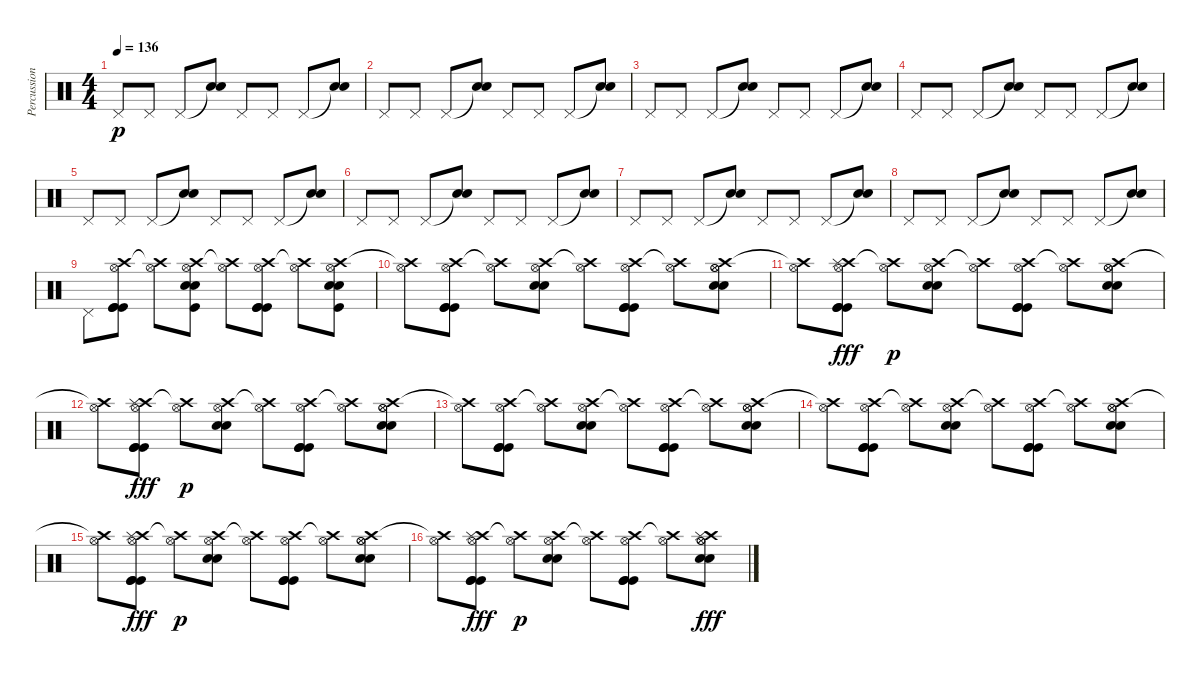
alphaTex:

\track ("Percussions" "Percussion") {instrument percussion}
\staff {score}
\articulation defaults
\ts (4 4)
\tempo 136
\clef neutral
\ks c "Pedal Hi-Hat (hit)".8{dy p} "Pedal Hi-Hat (hit)".8 "Pedal Hi-Hat (hit)".8
("Snare (hit)"{t} "Snare (hit) 2").8 "Pedal Hi-Hat (hit)".8 "Pedal Hi-Hat (hit)".8 "Pedal Hi-Hat (hit)".8 ("Snare (hit)"{t} "Snare (hit) 2").8 |
"Pedal Hi-Hat (hit)".8 "Pedal Hi-Hat (hit)".8 "Pedal Hi-Hat (hit)".8 ("Snare (hit)"{t} "Snare (hit) 2").8 "Pedal Hi-Hat (hit)".8 "Pedal Hi-Hat (hit)".8 "Pedal Hi-Hat (hit)".8 ("Snare (hit)"{t} "Snare (hit) 2").8 |
"Pedal Hi-Hat (hit)".8 "Pedal Hi-Hat (hit)".8 "Pedal Hi-Hat (hit)".8 ("Snare (hit)"{t} "Snare (hit) 2").8 "Pedal Hi-Hat (hit)".8 "Pedal Hi-Hat (hit)".8 "Pedal Hi-Hat (hit)".8 ("Snare (hit)"{t} "Snare (hit) 2").8 |
"Pedal Hi-Hat (hit)".8 "Pedal Hi-Hat (hit)".8 "Pedal Hi-Hat (hit)".8 ("Snare (hit)"{t} "Snare (hit) 2").8 "Pedal Hi-Hat (hit)".8 "Pedal Hi-Hat (hit)".8 "Pedal Hi-Hat (hit)".8 ("Snare (hit)"{t} "Snare (hit) 2").8 |
"Pedal Hi-Hat (hit)".8 "Pedal Hi-Hat (hit)".8 "Pedal Hi-Hat (hit)".8 ("Snare (hit)"{t} "Snare (hit) 2").8 "Pedal Hi-Hat (hit)".8 "Pedal Hi-Hat (hit)".8 "Pedal Hi-Hat (hit)".8 ("Snare (hit)"{t} "Snare (hit) 2").8 |
"Pedal Hi-Hat (hit)".8 "Pedal Hi-Hat (hit)".8 "Pedal Hi-Hat (hit)".8 ("Snare (hit)"{t} "Snare (hit) 2").8 "Pedal Hi-Hat (hit)".8 "Pedal Hi-Hat (hit)".8 "Pedal Hi-Hat (hit)".8 ("Snare (hit)"{t} "Snare (hit) 2").8 |
"Pedal Hi-Hat (hit)".8 "Pedal Hi-Hat (hit)".8 "Pedal Hi-Hat (hit)".8 ("Snare (hit)"{t} "Snare (hit) 2").8 "Pedal Hi-Hat (hit)".8 "Pedal Hi-Hat (hit)".8 "Pedal Hi-Hat (hit)".8 ("Snare (hit)"{t} "Snare (hit) 2").8 |
"Pedal Hi-Hat (hit)".8 "Pedal Hi-Hat (hit)".8 "Pedal Hi-Hat (hit)".8 ("Snare (hit)"{t} "Snare (hit) 2").8 "Pedal Hi-Hat (hit)".8 "Pedal Hi-Hat (hit)".8 "Pedal Hi-Hat (hit)".8 ("Snare (hit)"{t} "Snare (hit) 2").8 |
"Pedal Hi-Hat (hit)".8 ("Crash high (hit)" "Hi-Hat (open)" "Kick (hit)" "Kick (hit)" "Kick (hit)").8 ("Crash high (hit)"{t} "Hi-Hat (open)").8 ("Crash high (hit)" "Hi-Hat (open)" "Snare (hit) 2" "Snare (hit) 2" "Kick (hit)").8 ("Crash high (hit)"{t} "Hi-Hat (open)").8 ("Crash high (hit)" "Hi-Hat (open)" "Kick (hit)" "Kick (hit)" "Kick (hit)").8 ("Crash high (hit)"{t} "Hi-Hat (open)").8 ("Crash high (hit)" "Hi-Hat (open)" "Snare (hit) 2" "Snare (hit) 2" "Kick (hit)").8 |
("Crash high (hit)"{t} "Hi-Hat (open)").8 ("Crash high (hit)" "Hi-Hat (open)" "Kick (hit)" "Kick (hit)" "Kick (hit)").8 ("Crash high (hit)"{t} "Hi-Hat (open)").8 ("Crash high (hit)" "Hi-Hat (open)" "Snare (hit) 2" "Snare (hit) 2").8 ("Crash high (hit)"{t} "Hi-Hat (open)").8 ("Crash high (hit)" "Hi-Hat (open)" "Kick (hit)" "Kick (hit)" "Kick (hit)").8 ("Crash high (hit)"{t} "Hi-Hat (open)").8 ("Crash high (hit)" "Hi-Hat (open)" "Snare (hit) 2" "Snare (hit) 2" "Hi-Hat (open)").8 |
("Crash high (hit)"{t} "Hi-Hat (open)").8 ("Crash high (hit)" "Hi-Hat (open)" "Splash (hit)" "Kick (hit)" "Kick (hit)" "Kick (hit)").8{dy fff} ("Crash high (hit)"{t} "Hi-Hat (open)").8{dy p} ("Crash high (hit)" "Hi-Hat (open)" "Snare (hit) 2" "Snare (hit) 2").8 ("Crash high (hit)"{t} "Hi-Hat (open)").8 ("Crash high (hit)" "Hi-Hat (open)" "Kick (hit)" "Kick (hit)" "Kick (hit)").8 ("Crash high (hit)"{t} "Hi-Hat (open)").8 ("Crash high (hit)" "Hi-Hat (open)" "Snare (hit) 2" "Snare (hit) 2" "Hi-Hat (open)").8 |
("Crash high (hit)"{t} "Hi-Hat (open)").8 ("Crash high (hit)" "Hi-Hat (open)" "Splash (hit)" "Kick (hit)" "Kick (hit)" "Kick (hit)").8{dy fff} ("Crash high (hit)"{t} "Hi-Hat (open)").8{dy p} ("Crash high (hit)" "Hi-Hat (open)" "Snare (hit) 2" "Snare (hit) 2").8 ("Crash high (hit)"{t} "Hi-Hat (open)").8 ("Crash high (hit)" "Hi-Hat (open)" "Kick (hit)" "Kick (hit)" "Kick (hit)").8 ("Crash high (hit)"{t} "Hi-Hat (open)").8 ("Crash high (hit)" "Hi-Hat (open)" "Snare (hit) 2" "Snare (hit) 2" "Hi-Hat (open)").8 |
("Crash high (hit)"{t} "Hi-Hat (open)").8 ("Crash high (hit)" "Hi-Hat (open)" "Kick (hit)" "Kick (hit)" "Kick (hit)").8 ("Crash high (hit)"{t} "Hi-Hat (open)").8 ("Crash high (hit)" "Hi-Hat (open)" "Snare (hit) 2" "Snare (hit) 2").8 ("Crash high (hit)"{t} "Hi-Hat (open)").8 ("Crash high (hit)" "Hi-Hat (open)" "Kick (hit)" "Kick (hit)" "Kick (hit)").8 ("Crash high (hit)"{t} "Hi-Hat (open)").8 ("Crash high (hit)" "Hi-Hat (open)" "Snare (hit) 2" "Snare (hit) 2" "Hi-Hat (open)").8 |
("Crash high (hit)"{t} "Hi-Hat (open)").8 ("Crash high (hit)" "Hi-Hat (open)" "Kick (hit)" "Kick (hit)" "Kick (hit)").8 ("Crash high (hit)"{t} "Hi-Hat (open)").8 ("Crash high (hit)" "Hi-Hat (open)" "Snare (hit) 2" "Snare (hit) 2").8 ("Crash high (hit)"{t} "Hi-Hat (open)").8 ("Crash high (hit)" "Hi-Hat (open)" "Kick (hit)" "Kick (hit)" "Kick (hit)").8 ("Crash high (hit)"{t} "Hi-Hat (open)").8 ("Crash high (hit)" "Hi-Hat (open)" "Snare (hit) 2" "Snare (hit) 2" "Hi-Hat (open)").8 |
("Crash high (hit)"{t} "Hi-Hat (open)").8 ("Crash high (hit)" "Hi-Hat (open)" "Splash (hit)" "Kick (hit)" "Kick (hit)" "Kick (hit)").8{dy fff} ("Crash high (hit)"{t} "Hi-Hat (open)").8{dy p} ("Crash high (hit)" "Hi-Hat (open)" "Snare (hit) 2" "Snare (hit) 2").8 ("Crash high (hit)"{t} "Hi-Hat (open)").8 ("Crash high (hit)" "Hi-Hat (open)" "Kick (hit)" "Kick (hit)" "Kick (hit)").8 ("Crash high (hit)"{t} "Hi-Hat (open)").8 ("Crash high (hit)" "Hi-Hat (open)" "Snare (hit) 2" "Snare (hit) 2" "Hi-Hat (open)").8 |
("Crash high (hit)"{t} "Hi-Hat (open)").8 ("Crash high (hit)" "Hi-Hat (open)" "Splash (hit)" "Kick (hit)" "Kick (hit)" "Kick (hit)").8{dy fff} ("Crash high (hit)"{t} "Hi-Hat (open)").8{dy p} ("Crash high (hit)" "Hi-Hat (open)" "Snare (hit) 2" "Snare (hit) 2").8 ("Crash high (hit)"{t} "Hi-Hat (open)").8 ("Crash high (hit)" "Hi-Hat (open)" "Kick (hit)" "Kick (hit)" "Kick (hit)").8 ("Crash high (hit)"{t} "Hi-Hat (open)").8 ("Crash high (hit)" "Hi-Hat (open)" "Snare (hit) 2" "Snare (hit) 2" "Hi-Hat (open)" "Splash (hit)").8{dy fff}
